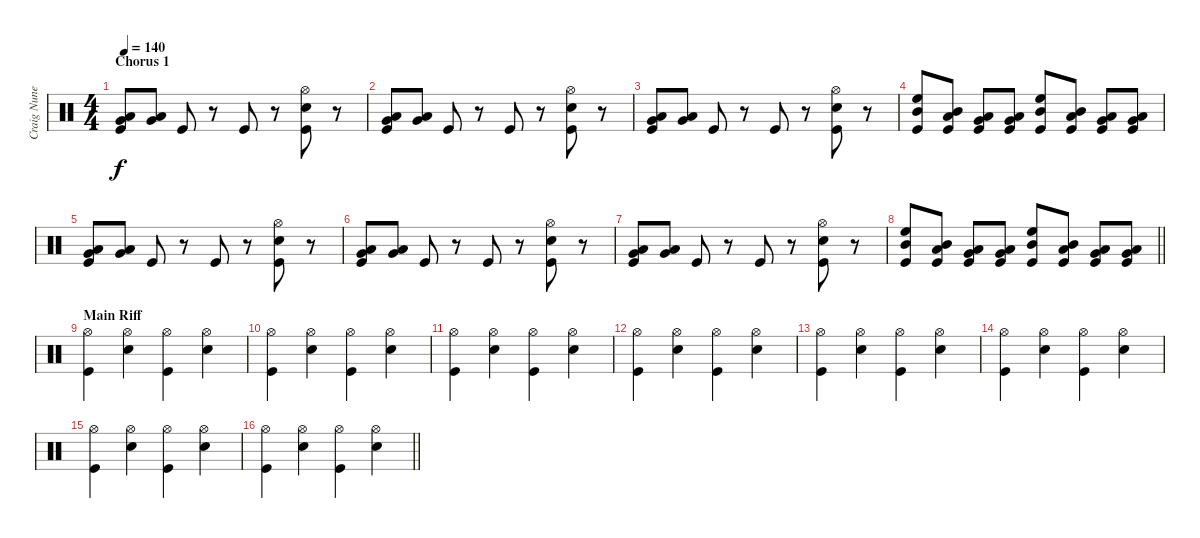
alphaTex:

\track ("Craig Nunenmacher" "Craig Nune") {instrument percussion}
\staff {score}
\articulation defaults
\ts (4 4)
\section ("" "Chorus 1")
\tempo 140
\clef neutral
\ks c
("Low Floor Tom (hit)" "Very Low Tom (hit)" "Kick (hit)").8{dy f} ("Low Floor Tom (hit)" "Very Low Tom (hit)").8 "Kick (hit)".8 r.8 "Kick (hit)".8 r.8 ("Snare (hit) 2" "Hi-Hat (open)" "Kick (hit)").8 r.8 |
("Low Floor Tom (hit)" "Very Low Tom (hit)" "Kick (hit)").8 ("Low Floor Tom (hit)" "Very Low Tom (hit)").8 "Kick (hit)".8 r.8 "Kick (hit)".8 r.8 ("Snare (hit) 2" "Hi-Hat (open)" "Kick (hit)").8 r.8 |
("Low Floor Tom (hit)" "Very Low Tom (hit)" "Kick (hit)").8 ("Low Floor Tom (hit)" "Very Low Tom (hit)").8 "Kick (hit)".8 r.8 "Kick (hit)".8 r.8 ("Snare (hit) 2" "Hi-Hat (open)" "Kick (hit)").8 r.8 |
("High Floor Tom (hit)" "Mid Tom (hit)" "Kick (hit)").8 ("Mid Tom (hit)" "Low Tom (hit)" "Kick (hit)").8 ("Low Tom (hit)" "Very Low Tom (hit)" "Kick (hit)").8 ("Very Low Tom (hit)" "Low Floor Tom (hit)" "Kick (hit)").8 ("High Floor Tom (hit)" "Mid Tom (hit)" "Kick (hit)").8 ("Mid Tom (hit)" "Low Tom (hit)" "Kick (hit)").8 ("Low Tom (hit)" "Very Low Tom (hit)" "Kick (hit)").8 ("Very Low Tom (hit)" "Low Floor Tom (hit)" "Kick (hit)").8 |
("Low Floor Tom (hit)" "Very Low Tom (hit)" "Kick (hit)").8 ("Low Floor Tom (hit)" "Very Low Tom (hit)").8 "Kick (hit)".8 r.8 "Kick (hit)".8 r.8 ("Snare (hit) 2" "Hi-Hat (open)" "Kick (hit)").8 r.8 |
("Low Floor Tom (hit)" "Very Low Tom (hit)" "Kick (hit)").8 ("Low Floor Tom (hit)" "Very Low Tom (hit)").8 "Kick (hit)".8 r.8 "Kick (hit)".8 r.8 ("Snare (hit) 2" "Hi-Hat (open)" "Kick (hit)").8 r.8 |
("Low Floor Tom (hit)" "Very Low Tom (hit)" "Kick (hit)").8 ("Low Floor Tom (hit)" "Very Low Tom (hit)").8 "Kick (hit)".8 r.8 "Kick (hit)".8 r.8 ("Snare (hit) 2" "Hi-Hat (open)" "Kick (hit)").8 r.8 |
\barLineRight lightlight
("High Floor Tom (hit)" "Mid Tom (hit)" "Kick (hit)").8 ("Mid Tom (hit)" "Low Tom (hit)" "Kick (hit)").8 ("Low Tom (hit)" "Very Low Tom (hit)" "Kick (hit)").8 ("Very Low Tom (hit)" "Low Floor Tom (hit)" "Kick (hit)").8 ("High Floor Tom (hit)" "Mid Tom (hit)" "Kick (hit)").8 ("Mid Tom (hit)" "Low Tom (hit)" "Kick (hit)").8 ("Low Tom (hit)" "Very Low Tom (hit)" "Kick (hit)").8 ("Very Low Tom (hit)" "Low Floor Tom (hit)" "Kick (hit)").8 |
\section ("" "Main Riff")
("Hi-Hat (open)" "Kick (hit)").4 ("Snare (hit) 2" "Hi-Hat (open)").4 ("Hi-Hat (open)" "Kick (hit)").4 ("Snare (hit) 2" "Hi-Hat (open)").4 |
("Hi-Hat (open)" "Kick (hit)").4 ("Snare (hit) 2" "Hi-Hat (open)").4 ("Hi-Hat (open)" "Kick (hit)").4 ("Snare (hit) 2" "Hi-Hat (open)").4 |
("Hi-Hat (open)" "Kick (hit)").4 ("Snare (hit) 2" "Hi-Hat (open)").4 ("Hi-Hat (open)" "Kick (hit)").4 ("Snare (hit) 2" "Hi-Hat (open)").4 |
("Hi-Hat (open)" "Kick (hit)").4 ("Snare (hit) 2" "Hi-Hat (open)").4 ("Hi-Hat (open)" "Kick (hit)").4 ("Snare (hit) 2" "Hi-Hat (open)").4 |
("Hi-Hat (open)" "Kick (hit)").4 ("Snare (hit) 2" "Hi-Hat (open)").4 ("Hi-Hat (open)" "Kick (hit)").4 ("Snare (hit) 2" "Hi-Hat (open)").4 |
("Hi-Hat (open)" "Kick (hit)").4 ("Snare (hit) 2" "Hi-Hat (open)").4 ("Hi-Hat (open)" "Kick (hit)").4 ("Snare (hit) 2" "Hi-Hat (open)").4 |
("Hi-Hat (open)" "Kick (hit)").4 ("Snare (hit) 2" "Hi-Hat (open)").4 ("Hi-Hat (open)" "Kick (hit)").4 ("Snare (hit) 2" "Hi-Hat (open)").4 |
\barLineRight lightlight
("Hi-Hat (open)" "Kick (hit)").4 ("Snare (hit) 2" "Hi-Hat (open)").4 ("Hi-Hat (open)" "Kick (hit)").4 ("Snare (hit) 2" "Hi-Hat (open)").4
